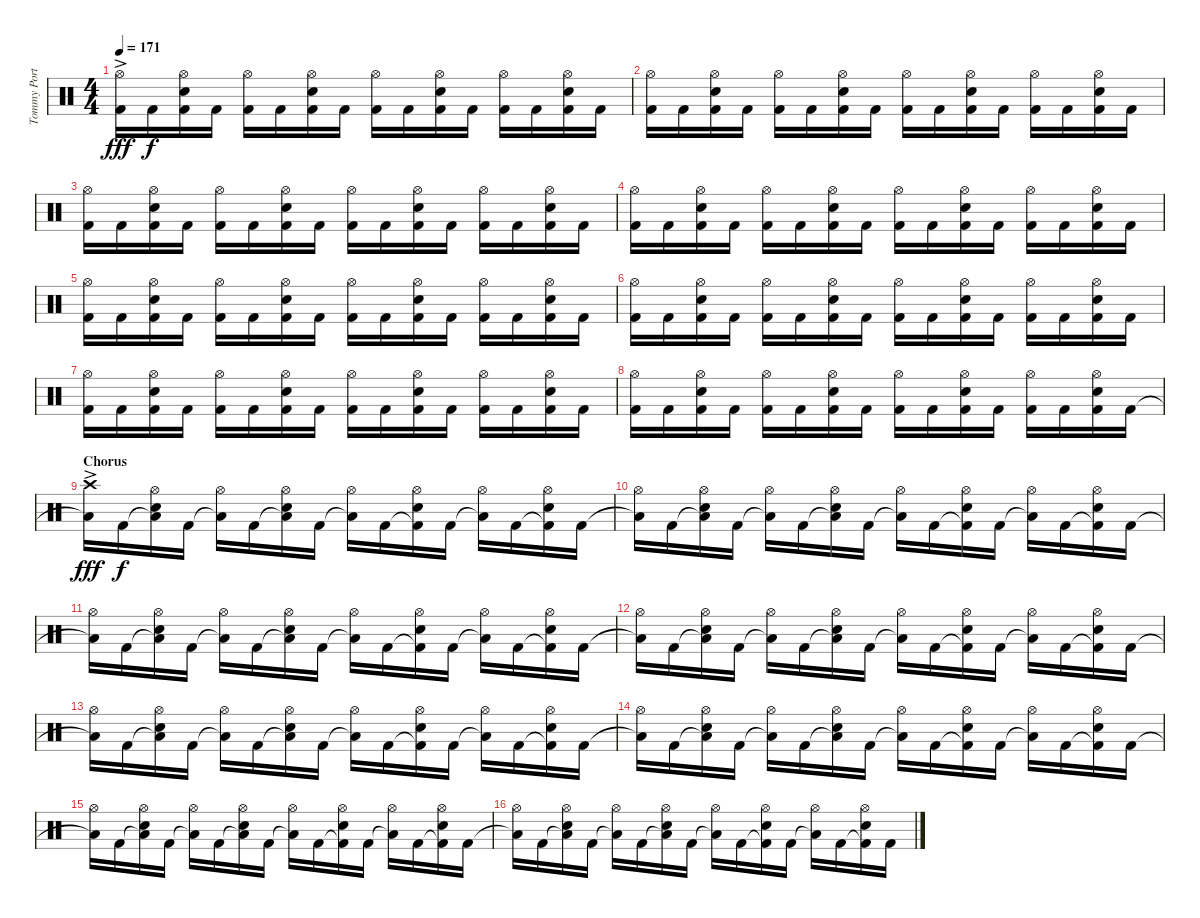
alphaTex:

\track ("Tommy Portino" "Tommy Port") {instrument percussion}
\staff {score}
\articulation defaults
\ts (4 4)
\tempo 171
\clef neutral
\ks aminor
("Kick (hit) 2"{ac} "Hi-Hat (open)").16{dy fff} "Kick (hit) 2".16{dy f} ("Kick (hit) 2" "Electric Snare (hit)" "Hi-Hat (open)").16 "Kick (hit) 2".16 ("Kick (hit) 2" "Hi-Hat (open)").16 "Kick (hit) 2".16 ("Kick (hit) 2" "Electric Snare (hit)" "Hi-Hat (open)").16 "Kick (hit) 2".16 ("Kick (hit) 2" "Hi-Hat (open)").16 "Kick (hit) 2".16 ("Kick (hit) 2" "Electric Snare (hit)" "Hi-Hat (open)").16 "Kick (hit) 2".16 ("Kick (hit) 2" "Hi-Hat (open)").16 "Kick (hit) 2".16 ("Kick (hit) 2" "Electric Snare (hit)" "Hi-Hat (open)").16 "Kick (hit) 2".16 |
("Kick (hit) 2" "Hi-Hat (open)").16 "Kick (hit) 2".16 ("Kick (hit) 2" "Electric Snare (hit)" "Hi-Hat (open)").16 "Kick (hit) 2".16 ("Kick (hit) 2" "Hi-Hat (open)").16 "Kick (hit) 2".16 ("Kick (hit) 2" "Electric Snare (hit)" "Hi-Hat (open)").16 "Kick (hit) 2".16 ("Kick (hit) 2" "Hi-Hat (open)").16 "Kick (hit) 2".16 ("Kick (hit) 2" "Electric Snare (hit)" "Hi-Hat (open)").16 "Kick (hit) 2".16 ("Kick (hit) 2" "Hi-Hat (open)").16 "Kick (hit) 2".16 ("Kick (hit) 2" "Electric Snare (hit)" "Hi-Hat (open)").16 "Kick (hit) 2".16 |
("Kick (hit) 2" "Hi-Hat (open)").16 "Kick (hit) 2".16 ("Kick (hit) 2" "Electric Snare (hit)" "Hi-Hat (open)").16 "Kick (hit) 2".16 ("Kick (hit) 2" "Hi-Hat (open)").16 "Kick (hit) 2".16 ("Kick (hit) 2" "Electric Snare (hit)" "Hi-Hat (open)").16 "Kick (hit) 2".16 ("Kick (hit) 2" "Hi-Hat (open)").16 "Kick (hit) 2".16 ("Kick (hit) 2" "Electric Snare (hit)" "Hi-Hat (open)").16 "Kick (hit) 2".16 ("Kick (hit) 2" "Hi-Hat (open)").16 "Kick (hit) 2".16 ("Kick (hit) 2" "Electric Snare (hit)" "Hi-Hat (open)").16 "Kick (hit) 2".16 |
("Kick (hit) 2" "Hi-Hat (open)").16 "Kick (hit) 2".16 ("Kick (hit) 2" "Electric Snare (hit)" "Hi-Hat (open)").16 "Kick (hit) 2".16 ("Kick (hit) 2" "Hi-Hat (open)").16 "Kick (hit) 2".16 ("Kick (hit) 2" "Electric Snare (hit)" "Hi-Hat (open)").16 "Kick (hit) 2".16 ("Kick (hit) 2" "Hi-Hat (open)").16 "Kick (hit) 2".16 ("Kick (hit) 2" "Electric Snare (hit)" "Hi-Hat (open)").16 "Kick (hit) 2".16 ("Kick (hit) 2" "Hi-Hat (open)").16 "Kick (hit) 2".16 ("Kick (hit) 2" "Electric Snare (hit)" "Hi-Hat (open)").16 "Kick (hit) 2".16 |
("Kick (hit) 2" "Hi-Hat (open)").16 "Kick (hit) 2".16 ("Kick (hit) 2" "Electric Snare (hit)" "Hi-Hat (open)").16 "Kick (hit) 2".16 ("Kick (hit) 2" "Hi-Hat (open)").16 "Kick (hit) 2".16 ("Kick (hit) 2" "Electric Snare (hit)" "Hi-Hat (open)").16 "Kick (hit) 2".16 ("Kick (hit) 2" "Hi-Hat (open)").16 "Kick (hit) 2".16 ("Kick (hit) 2" "Electric Snare (hit)" "Hi-Hat (open)").16 "Kick (hit) 2".16 ("Kick (hit) 2" "Hi-Hat (open)").16 "Kick (hit) 2".16 ("Kick (hit) 2" "Electric Snare (hit)" "Hi-Hat (open)").16 "Kick (hit) 2".16 |
("Kick (hit) 2" "Hi-Hat (open)").16 "Kick (hit) 2".16 ("Kick (hit) 2" "Electric Snare (hit)" "Hi-Hat (open)").16 "Kick (hit) 2".16 ("Kick (hit) 2" "Hi-Hat (open)").16 "Kick (hit) 2".16 ("Kick (hit) 2" "Electric Snare (hit)" "Hi-Hat (open)").16 "Kick (hit) 2".16 ("Kick (hit) 2" "Hi-Hat (open)").16 "Kick (hit) 2".16 ("Kick (hit) 2" "Electric Snare (hit)" "Hi-Hat (open)").16 "Kick (hit) 2".16 ("Kick (hit) 2" "Hi-Hat (open)").16 "Kick (hit) 2".16 ("Kick (hit) 2" "Electric Snare (hit)" "Hi-Hat (open)").16 "Kick (hit) 2".16 |
("Kick (hit) 2" "Hi-Hat (open)").16 "Kick (hit) 2".16 ("Kick (hit) 2" "Electric Snare (hit)" "Hi-Hat (open)").16 "Kick (hit) 2".16 ("Kick (hit) 2" "Hi-Hat (open)").16 "Kick (hit) 2".16 ("Kick (hit) 2" "Electric Snare (hit)" "Hi-Hat (open)").16 "Kick (hit) 2".16 ("Kick (hit) 2" "Hi-Hat (open)").16 "Kick (hit) 2".16 ("Kick (hit) 2" "Electric Snare (hit)" "Hi-Hat (open)").16 "Kick (hit) 2".16 ("Kick (hit) 2" "Hi-Hat (open)").16 "Kick (hit) 2".16 ("Kick (hit) 2" "Electric Snare (hit)" "Hi-Hat (open)").16 "Kick (hit) 2".16 |
("Kick (hit) 2" "Hi-Hat (open)").16 "Kick (hit) 2".16 ("Kick (hit) 2" "Electric Snare (hit)" "Hi-Hat (open)").16 "Kick (hit) 2".16 ("Kick (hit) 2" "Hi-Hat (open)").16 "Kick (hit) 2".16 ("Kick (hit) 2" "Electric Snare (hit)" "Hi-Hat (open)").16 "Kick (hit) 2".16 ("Kick (hit) 2" "Hi-Hat (open)").16 "Kick (hit) 2".16 ("Kick (hit) 2" "Electric Snare (hit)" "Hi-Hat (open)").16 "Kick (hit) 2".16 ("Kick (hit) 2" "Hi-Hat (open)").16 "Kick (hit) 2".16 ("Kick (hit) 2" "Electric Snare (hit)" "Hi-Hat (open)").16 "Kick (hit) 2".16 |
\section ("" "Chorus")
("Low Floor Tom (hit)"{t} "Crash high (hit)"{ac}).16{dy fff} "Kick (hit) 2".16{dy f} ("Low Floor Tom (hit)"{t} "Electric Snare (hit)" "Hi-Hat (open)").16 "Kick (hit) 2".16 ("Low Floor Tom (hit)"{t} "Hi-Hat (open)").16 "Kick (hit) 2".16 ("Low Floor Tom (hit)"{t} "Electric Snare (hit)" "Hi-Hat (open)").16 "Kick (hit) 2".16 ("Low Floor Tom (hit)"{t} "Hi-Hat (open)").16 "Kick (hit) 2".16 ("Kick (hit) 2"{t} "Electric Snare (hit)" "Hi-Hat (open)").16 "Kick (hit) 2".16 ("Low Floor Tom (hit)"{t} "Hi-Hat (open)").16 "Kick (hit) 2".16 ("Kick (hit) 2"{t} "Electric Snare (hit)" "Hi-Hat (open)").16 "Kick (hit) 2".16 |
("Low Floor Tom (hit)"{t} "Hi-Hat (open)").16 "Kick (hit) 2".16 ("Low Floor Tom (hit)"{t} "Electric Snare (hit)" "Hi-Hat (open)").16 "Kick (hit) 2".16 ("Low Floor Tom (hit)"{t} "Hi-Hat (open)").16 "Kick (hit) 2".16 ("Low Floor Tom (hit)"{t} "Electric Snare (hit)" "Hi-Hat (open)").16 "Kick (hit) 2".16 ("Low Floor Tom (hit)"{t} "Hi-Hat (open)").16 "Kick (hit) 2".16 ("Kick (hit) 2"{t} "Electric Snare (hit)" "Hi-Hat (open)").16 "Kick (hit) 2".16 ("Low Floor Tom (hit)"{t} "Hi-Hat (open)").16 "Kick (hit) 2".16 ("Kick (hit) 2"{t} "Electric Snare (hit)" "Hi-Hat (open)").16 "Kick (hit) 2".16 |
("Low Floor Tom (hit)"{t} "Hi-Hat (open)").16 "Kick (hit) 2".16 ("Low Floor Tom (hit)"{t} "Electric Snare (hit)" "Hi-Hat (open)").16 "Kick (hit) 2".16 ("Low Floor Tom (hit)"{t} "Hi-Hat (open)").16 "Kick (hit) 2".16 ("Low Floor Tom (hit)"{t} "Electric Snare (hit)" "Hi-Hat (open)").16 "Kick (hit) 2".16 ("Low Floor Tom (hit)"{t} "Hi-Hat (open)").16 "Kick (hit) 2".16 ("Kick (hit) 2"{t} "Electric Snare (hit)" "Hi-Hat (open)").16 "Kick (hit) 2".16 ("Low Floor Tom (hit)"{t} "Hi-Hat (open)").16 "Kick (hit) 2".16 ("Kick (hit) 2"{t} "Electric Snare (hit)" "Hi-Hat (open)").16 "Kick (hit) 2".16 |
("Low Floor Tom (hit)"{t} "Hi-Hat (open)").16 "Kick (hit) 2".16 ("Low Floor Tom (hit)"{t} "Electric Snare (hit)" "Hi-Hat (open)").16 "Kick (hit) 2".16 ("Low Floor Tom (hit)"{t} "Hi-Hat (open)").16 "Kick (hit) 2".16 ("Low Floor Tom (hit)"{t} "Electric Snare (hit)" "Hi-Hat (open)").16 "Kick (hit) 2".16 ("Low Floor Tom (hit)"{t} "Hi-Hat (open)").16 "Kick (hit) 2".16 ("Kick (hit) 2"{t} "Electric Snare (hit)" "Hi-Hat (open)").16 "Kick (hit) 2".16 ("Low Floor Tom (hit)"{t} "Hi-Hat (open)").16 "Kick (hit) 2".16 ("Kick (hit) 2"{t} "Electric Snare (hit)" "Hi-Hat (open)").16 "Kick (hit) 2".16 |
("Low Floor Tom (hit)"{t} "Hi-Hat (open)").16 "Kick (hit) 2".16 ("Low Floor Tom (hit)"{t} "Electric Snare (hit)" "Hi-Hat (open)").16 "Kick (hit) 2".16 ("Low Floor Tom (hit)"{t} "Hi-Hat (open)").16 "Kick (hit) 2".16 ("Low Floor Tom (hit)"{t} "Electric Snare (hit)" "Hi-Hat (open)").16 "Kick (hit) 2".16 ("Low Floor Tom (hit)"{t} "Hi-Hat (open)").16 "Kick (hit) 2".16 ("Kick (hit) 2"{t} "Electric Snare (hit)" "Hi-Hat (open)").16 "Kick (hit) 2".16 ("Low Floor Tom (hit)"{t} "Hi-Hat (open)").16 "Kick (hit) 2".16 ("Kick (hit) 2"{t} "Electric Snare (hit)" "Hi-Hat (open)").16 "Kick (hit) 2".16 |
("Low Floor Tom (hit)"{t} "Hi-Hat (open)").16 "Kick (hit) 2".16 ("Low Floor Tom (hit)"{t} "Electric Snare (hit)" "Hi-Hat (open)").16 "Kick (hit) 2".16 ("Low Floor Tom (hit)"{t} "Hi-Hat (open)").16 "Kick (hit) 2".16 ("Low Floor Tom (hit)"{t} "Electric Snare (hit)" "Hi-Hat (open)").16 "Kick (hit) 2".16 ("Low Floor Tom (hit)"{t} "Hi-Hat (open)").16 "Kick (hit) 2".16 ("Kick (hit) 2"{t} "Electric Snare (hit)" "Hi-Hat (open)").16 "Kick (hit) 2".16 ("Low Floor Tom (hit)"{t} "Hi-Hat (open)").16 "Kick (hit) 2".16 ("Kick (hit) 2"{t} "Electric Snare (hit)" "Hi-Hat (open)").16 "Kick (hit) 2".16 |
("Low Floor Tom (hit)"{t} "Hi-Hat (open)").16 "Kick (hit) 2".16 ("Low Floor Tom (hit)"{t} "Electric Snare (hit)" "Hi-Hat (open)").16 "Kick (hit) 2".16 ("Low Floor Tom (hit)"{t} "Hi-Hat (open)").16 "Kick (hit) 2".16 ("Low Floor Tom (hit)"{t} "Electric Snare (hit)" "Hi-Hat (open)").16 "Kick (hit) 2".16 ("Low Floor Tom (hit)"{t} "Hi-Hat (open)").16 "Kick (hit) 2".16 ("Kick (hit) 2"{t} "Electric Snare (hit)" "Hi-Hat (open)").16 "Kick (hit) 2".16 ("Low Floor Tom (hit)"{t} "Hi-Hat (open)").16 "Kick (hit) 2".16 ("Kick (hit) 2"{t} "Electric Snare (hit)" "Hi-Hat (open)").16 "Kick (hit) 2".16 |
("Low Floor Tom (hit)"{t} "Hi-Hat (open)").16 "Kick (hit) 2".16 ("Low Floor Tom (hit)"{t} "Electric Snare (hit)" "Hi-Hat (open)").16 "Kick (hit) 2".16 ("Low Floor Tom (hit)"{t} "Hi-Hat (open)").16 "Kick (hit) 2".16 ("Low Floor Tom (hit)"{t} "Electric Snare (hit)" "Hi-Hat (open)").16 "Kick (hit) 2".16 ("Low Floor Tom (hit)"{t} "Hi-Hat (open)").16 "Kick (hit) 2".16 ("Kick (hit) 2"{t} "Electric Snare (hit)" "Hi-Hat (open)").16 "Kick (hit) 2".16 ("Low Floor Tom (hit)"{t} "Hi-Hat (open)").16 "Kick (hit) 2".16 ("Kick (hit) 2"{t} "Electric Snare (hit)" "Hi-Hat (open)").16 "Kick (hit) 2".16
